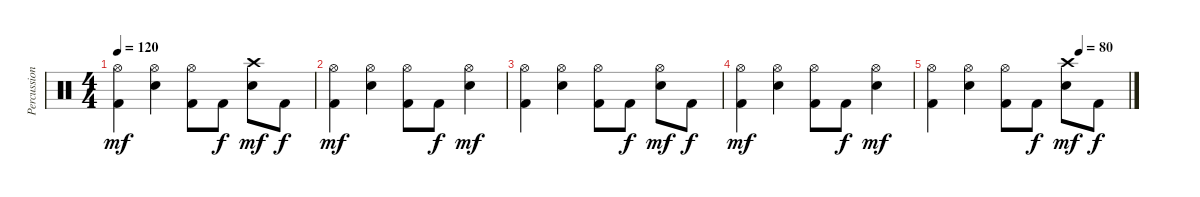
\track ("Percussion" "Percussion") {instrument percussion}
\staff {score}
\articulation defaults
\ts (4 4)
\tempo 120
\clef neutral
\ks c
("Hi-Hat (open)" "Kick (hit) 2").4{dy mf} ("Hi-Hat (open)" "Electric Snare (hit)").4 ("Hi-Hat (open)" "Kick (hit) 2").8 "Kick (hit) 2".8{dy f} ("Crash high (hit)" "Electric Snare (hit)").8{dy mf} "Kick (hit) 2".8{dy f} |
("Hi-Hat (open)" "Kick (hit) 2").4{dy mf} ("Hi-Hat (open)" "Electric Snare (hit)").4 ("Hi-Hat (open)" "Kick (hit) 2").8 "Kick (hit) 2".8{dy f} ("Hi-Hat (open)" "Electric Snare (hit)").4{dy mf} |
("Hi-Hat (open)" "Kick (hit) 2").4 ("Hi-Hat (open)" "Electric Snare (hit)").4 ("Hi-Hat (open)" "Kick (hit) 2").8 "Kick (hit) 2".8{dy f} ("Hi-Hat (open)" "Electric Snare (hit)").8{dy mf} "Kick (hit) 2".8{dy f} |
("Hi-Hat (open)" "Kick (hit) 2").4{dy mf} ("Hi-Hat (open)" "Electric Snare (hit)").4 ("Hi-Hat (open)" "Kick (hit) 2").8 "Kick (hit) 2".8{dy f} ("Hi-Hat (open)" "Electric Snare (hit)").4{dy mf} |
\tempo (80 0.75)
("Hi-Hat (open)" "Kick (hit) 2").4 ("Hi-Hat (open)" "Electric Snare (hit)").4 ("Hi-Hat (open)" "Kick (hit) 2").8 "Kick (hit) 2".8{dy f} ("Crash high (hit)" "Electric Snare (hit)").8{dy mf} "Kick (hit) 2".8{dy f}
